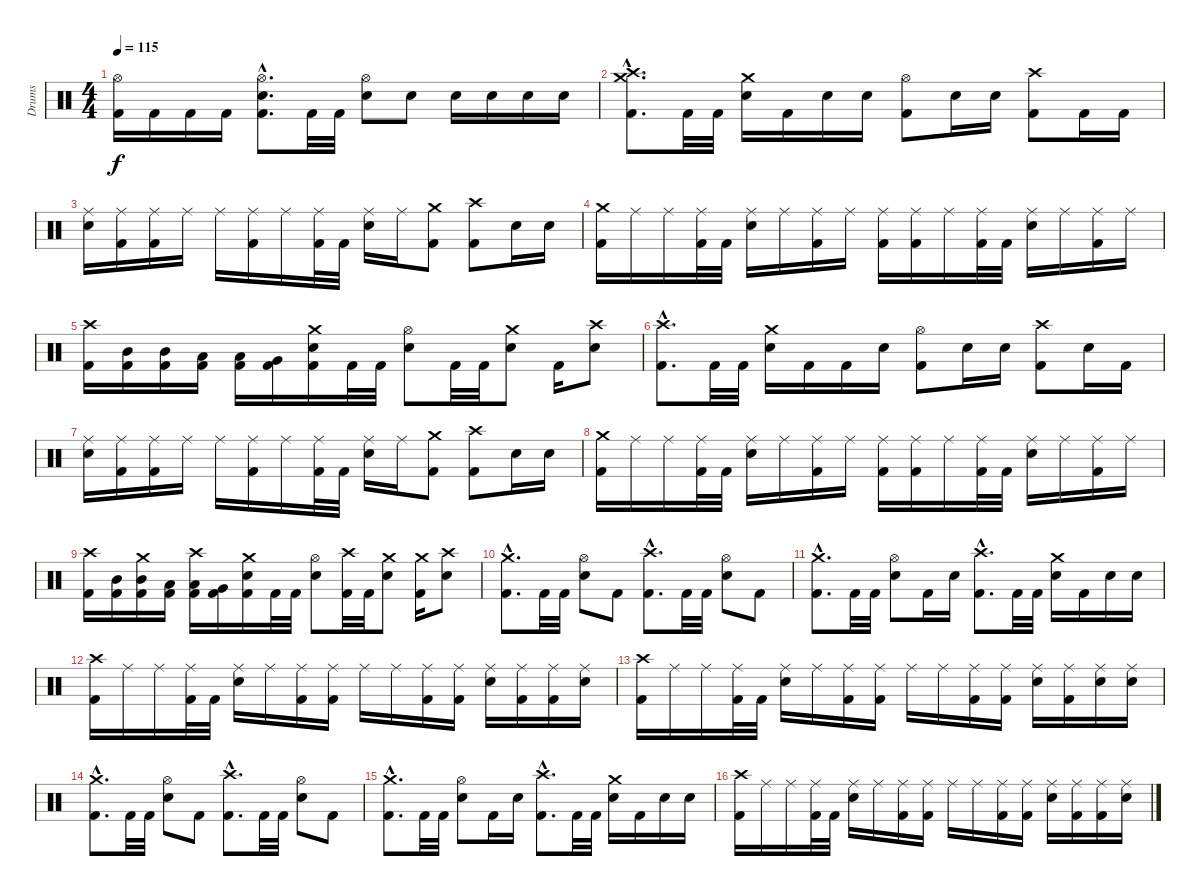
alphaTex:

\track ("Drums" "Drums") {instrument percussion}
\staff {score}
\articulation defaults
\ts (4 4)
\tempo 115
\clef neutral
\ks c
("Hi-Hat (open)" "Kick (hit) 2").16{dy f} "Kick (hit) 2".16 "Kick (hit) 2".16 "Kick (hit) 2".16 ("Hi-Hat (open)"{hac} "Electric Snare (hit)"{hac} "Kick (hit) 2"{hac}).8{d} "Kick (hit) 2".32 "Kick (hit) 2".32 ("Hi-Hat (open)" "Electric Snare (hit)").8 "Electric Snare (hit)".8 "Electric Snare (hit)".16 "Electric Snare (hit)".16 "Electric Snare (hit)".16 "Electric Snare (hit)".16 |
("Crash medium (hit)"{hac} "Crash high (hit)"{hac} "Kick (hit) 2"{hac}).8{d} "Kick (hit) 2".32 "Kick (hit) 2".32 ("Crash medium (hit)" "Electric Snare (hit)").16 "Kick (hit) 2".16 "Electric Snare (hit)".16 "Electric Snare (hit)".16 ("Hi-Hat (open)" "Kick (hit) 2").8 "Electric Snare (hit)".16 "Electric Snare (hit)".16 ("Crash high (hit)" "Kick (hit) 2").8 "Kick (hit) 2".16 "Kick (hit) 2".16 |
("Ride (middle)" "Electric Snare (hit)").16 ("Ride (middle)" "Kick (hit) 2").16 ("Ride (middle)" "Kick (hit) 2").16 "Ride (middle)".16 "Ride (middle)".16 ("Ride (middle)" "Kick (hit) 2").16 "Ride (middle)".16 ("Ride (middle)" "Kick (hit) 2").32 "Kick (hit) 2".32 ("Ride (middle)" "Electric Snare (hit)").16 "Ride (middle)".16 ("Crash medium (hit)" "Kick (hit) 2").8 ("Crash high (hit)" "Kick (hit) 2").8 "Electric Snare (hit)".16 "Electric Snare (hit)".16 |
("Crash medium (hit)" "Kick (hit) 2").16 "Ride (middle)".16 "Ride (middle)".16 ("Ride (middle)" "Kick (hit) 2").32 "Kick (hit) 2".32 ("Ride (middle)" "Electric Snare (hit)").16 "Ride (middle)".16 ("Ride (middle)" "Kick (hit) 2").16 "Ride (middle)".16 ("Ride (middle)" "Kick (hit) 2").16 ("Ride (middle)" "Kick (hit) 2").16 "Ride (middle)".16 ("Ride (middle)" "Kick (hit) 2").32 "Kick (hit) 2".32 ("Ride (middle)" "Electric Snare (hit)").16 "Ride (middle)".16 ("Ride (middle)" "Kick (hit) 2").16 "Ride (middle)".16 |
("Crash high (hit)" "Kick (hit) 2").16 ("Mid Tom (hit)" "Kick (hit) 2").16 ("Mid Tom (hit)" "Kick (hit) 2").16 ("Low Tom (hit)" "Kick (hit) 2").16 ("Low Tom (hit)" "Kick (hit) 2").16 ("Very Low Tom (hit)" "Kick (hit) 2").16 ("Crash medium (hit)" "Electric Snare (hit)" "Kick (hit) 2").16 "Kick (hit) 2".32 "Kick (hit) 2".32 ("Hi-Hat (open)" "Electric Snare (hit)").8 "Kick (hit) 2".32 "Kick (hit) 2".32 ("Crash medium (hit)" "Electric Snare (hit)").8 "Kick (hit) 2".16 ("Crash high (hit)" "Electric Snare (hit)").8 |
("Crash high (hit)"{hac} "Kick (hit) 2"{hac}).8{d} "Kick (hit) 2".32 "Kick (hit) 2".32 ("Crash medium (hit)" "Electric Snare (hit)").16 "Kick (hit) 2".16 "Kick (hit) 2".16 "Electric Snare (hit)".16 ("Hi-Hat (open)" "Kick (hit) 2").8 "Electric Snare (hit)".16 "Electric Snare (hit)".16 ("Crash high (hit)" "Kick (hit) 2").8 "Electric Snare (hit)".16 "Kick (hit) 2".16 |
("Ride (middle)" "Electric Snare (hit)").16 ("Ride (middle)" "Kick (hit) 2").16 ("Ride (middle)" "Kick (hit) 2").16 "Ride (middle)".16 "Ride (middle)".16 ("Ride (middle)" "Kick (hit) 2").16 "Ride (middle)".16 ("Ride (middle)" "Kick (hit) 2").32 "Kick (hit) 2".32 ("Ride (middle)" "Electric Snare (hit)").16 "Ride (middle)".16 ("Crash medium (hit)" "Kick (hit) 2").8 ("Crash high (hit)" "Kick (hit) 2").8 "Electric Snare (hit)".16 "Electric Snare (hit)".16 |
("Crash medium (hit)" "Kick (hit) 2").16 "Ride (middle)".16 "Ride (middle)".16 ("Ride (middle)" "Kick (hit) 2").32 "Kick (hit) 2".32 ("Ride (middle)" "Electric Snare (hit)").16 "Ride (middle)".16 ("Ride (middle)" "Kick (hit) 2").16 "Ride (middle)".16 ("Ride (middle)" "Kick (hit) 2").16 ("Ride (middle)" "Kick (hit) 2").16 "Ride (middle)".16 ("Ride (middle)" "Kick (hit) 2").32 "Kick (hit) 2".32 ("Ride (middle)" "Electric Snare (hit)").16 "Ride (middle)".16 ("Ride (middle)" "Kick (hit) 2").16 "Ride (middle)".16 |
("Crash high (hit)" "Kick (hit) 2").16 ("Mid Tom (hit)" "Kick (hit) 2").16 ("Crash medium (hit)" "Mid Tom (hit)" "Kick (hit) 2").16 ("Low Tom (hit)" "Kick (hit) 2").16 ("Crash high (hit)" "Low Tom (hit)" "Kick (hit) 2").16 ("Very Low Tom (hit)" "Kick (hit) 2").16 ("Crash medium (hit)" "Electric Snare (hit)" "Kick (hit) 2").16 "Kick (hit) 2".32 "Kick (hit) 2".32 ("Hi-Hat (open)" "Electric Snare (hit)").8 ("Crash high (hit)" "Kick (hit) 2").32 "Kick (hit) 2".32 ("Crash medium (hit)" "Electric Snare (hit)").8 ("Crash medium (hit)" "Kick (hit) 2").16 ("Crash high (hit)" "Electric Snare (hit)").8 |
("Crash medium (hit)"{hac} "Kick (hit) 2"{hac}).8{d} "Kick (hit) 2".32 "Kick (hit) 2".32 ("Hi-Hat (open)" "Electric Snare (hit)").8 "Kick (hit) 2".8 ("Crash high (hit)"{hac} "Kick (hit) 2"{hac}).8{d} "Kick (hit) 2".32 "Kick (hit) 2".32 ("Hi-Hat (open)" "Electric Snare (hit)").8 "Kick (hit) 2".8 |
("Crash medium (hit)"{hac} "Kick (hit) 2"{hac}).8{d} "Kick (hit) 2".32 "Kick (hit) 2".32 ("Hi-Hat (open)" "Electric Snare (hit)").8 "Kick (hit) 2".16 "Electric Snare (hit)".16 ("Crash high (hit)"{hac} "Kick (hit) 2"{hac}).8{d} "Kick (hit) 2".32 "Kick (hit) 2".32 ("Crash medium (hit)" "Electric Snare (hit)").16 "Kick (hit) 2".16 "Electric Snare (hit)".16 "Electric Snare (hit)".16 |
("Crash high (hit)" "Kick (hit) 2").16 "Ride (middle)".16 "Ride (middle)".16 ("Ride (middle)" "Kick (hit) 2").32 "Kick (hit) 2".32 ("Ride (middle)" "Electric Snare (hit)").16 "Ride (middle)".16 ("Ride (middle)" "Kick (hit) 2").16 ("Ride (middle)" "Kick (hit) 2").16 "Ride (middle)".16 "Ride (middle)".16 ("Ride (middle)" "Kick (hit) 2").16 ("Ride (middle)" "Kick (hit) 2").16 ("Ride (middle)" "Electric Snare (hit)").16 ("Ride (middle)" "Kick (hit) 2").16 ("Ride (middle)" "Kick (hit) 2").16 ("Ride (middle)" "Electric Snare (hit)").16 |
("Crash high (hit)" "Kick (hit) 2").16 "Ride (middle)".16 "Ride (middle)".16 ("Ride (middle)" "Kick (hit) 2").32 "Kick (hit) 2".32 ("Ride (middle)" "Electric Snare (hit)").16 "Ride (middle)".16 ("Ride (middle)" "Kick (hit) 2").16 ("Ride (middle)" "Kick (hit) 2").16 "Ride (middle)".16 "Ride (middle)".16 ("Ride (middle)" "Kick (hit) 2").16 ("Ride (middle)" "Kick (hit) 2").16 ("Ride (middle)" "Electric Snare (hit)").16 ("Ride (middle)" "Kick (hit) 2").16 ("Ride (middle)" "Electric Snare (hit)").16 ("Ride (middle)" "Electric Snare (hit)").16 |
("Crash medium (hit)"{hac} "Kick (hit) 2"{hac}).8{d} "Kick (hit) 2".32 "Kick (hit) 2".32 ("Hi-Hat (open)" "Electric Snare (hit)").8 "Kick (hit) 2".8 ("Crash high (hit)"{hac} "Kick (hit) 2"{hac}).8{d} "Kick (hit) 2".32 "Kick (hit) 2".32 ("Hi-Hat (open)" "Electric Snare (hit)").8 "Kick (hit) 2".8 |
("Crash medium (hit)"{hac} "Kick (hit) 2"{hac}).8{d} "Kick (hit) 2".32 "Kick (hit) 2".32 ("Hi-Hat (open)" "Electric Snare (hit)").8 "Kick (hit) 2".16 "Electric Snare (hit)".16 ("Crash high (hit)"{hac} "Kick (hit) 2"{hac}).8{d} "Kick (hit) 2".32 "Kick (hit) 2".32 ("Crash medium (hit)" "Electric Snare (hit)").16 "Kick (hit) 2".16 "Electric Snare (hit)".16 "Electric Snare (hit)".16 |
("Crash high (hit)" "Kick (hit) 2").16 "Ride (middle)".16 "Ride (middle)".16 ("Ride (middle)" "Kick (hit) 2").32 "Kick (hit) 2".32 ("Ride (middle)" "Electric Snare (hit)").16 "Ride (middle)".16 ("Ride (middle)" "Kick (hit) 2").16 ("Ride (middle)" "Kick (hit) 2").16 "Ride (middle)".16 "Ride (middle)".16 ("Ride (middle)" "Kick (hit) 2").16 ("Ride (middle)" "Kick (hit) 2").16 ("Ride (middle)" "Electric Snare (hit)").16 ("Ride (middle)" "Kick (hit) 2").16 ("Ride (middle)" "Kick (hit) 2").16 ("Ride (middle)" "Electric Snare (hit)").16
